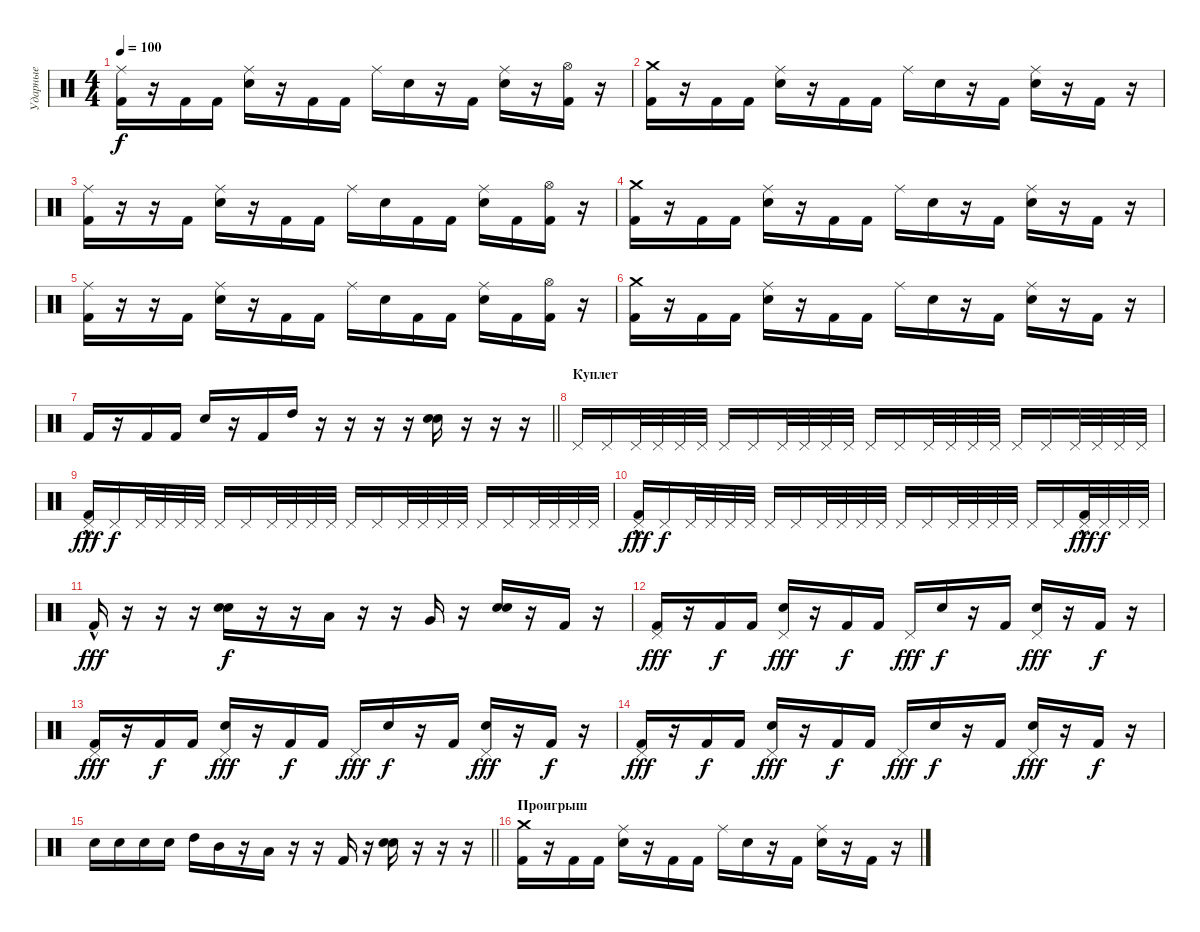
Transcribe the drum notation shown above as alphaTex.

\track ("Ударные" "Ударные") {instrument percussion}
\staff {score}
\articulation defaults
\ts (4 4)
\tempo 100
\clef neutral
\ks c
("Kick (hit) 2" "Ride (middle)").16{dy f} r.16 "Kick (hit) 2".16 "Kick (hit) 2".16 ("Electric Snare (hit)" "Ride (middle)").16 r.16 "Kick (hit) 2".16 "Kick (hit) 2".16 "Ride (middle)".16 "Electric Snare (hit)".16 r.16 "Kick (hit) 2".16 ("Electric Snare (hit)" "Ride (middle)").16 r.16 ("Kick (hit) 2" "Hi-Hat (open)").16 r.16 |
("Kick (hit) 2" "Crash medium (hit)").16 r.16 "Kick (hit) 2".16 "Kick (hit) 2".16 ("Electric Snare (hit)" "Ride (middle)").16 r.16 "Kick (hit) 2".16 "Kick (hit) 2".16 "Ride (middle)".16 "Electric Snare (hit)".16 r.16 "Kick (hit) 2".16 ("Electric Snare (hit)" "Ride (middle)").16 r.16 "Kick (hit) 2".16 r.16 |
("Kick (hit) 2" "Ride (middle)").16 r.16 r.16 "Kick (hit) 2".16 ("Electric Snare (hit)" "Ride (middle)").16 r.16 "Kick (hit) 2".16 "Kick (hit) 2".16 "Ride (middle)".16 "Electric Snare (hit)".16 "Kick (hit) 2".16 "Kick (hit) 2".16 ("Electric Snare (hit)" "Ride (middle)").16 "Kick (hit) 2".16 ("Kick (hit) 2" "Hi-Hat (open)").16 r.16 |
("Kick (hit) 2" "Crash medium (hit)").16 r.16 "Kick (hit) 2".16 "Kick (hit) 2".16 ("Electric Snare (hit)" "Ride (middle)").16 r.16 "Kick (hit) 2".16 "Kick (hit) 2".16 "Ride (middle)".16 "Electric Snare (hit)".16 r.16 "Kick (hit) 2".16 ("Electric Snare (hit)" "Ride (middle)").16 r.16 "Kick (hit) 2".16 r.16 |
("Kick (hit) 2" "Ride (middle)").16 r.16 r.16 "Kick (hit) 2".16 ("Electric Snare (hit)" "Ride (middle)").16 r.16 "Kick (hit) 2".16 "Kick (hit) 2".16 "Ride (middle)".16 "Electric Snare (hit)".16 "Kick (hit) 2".16 "Kick (hit) 2".16 ("Electric Snare (hit)" "Ride (middle)").16 "Kick (hit) 2".16 ("Kick (hit) 2" "Hi-Hat (open)").16 r.16 |
("Kick (hit) 2" "Crash medium (hit)").16 r.16 "Kick (hit) 2".16 "Kick (hit) 2".16 ("Electric Snare (hit)" "Ride (middle)").16 r.16 "Kick (hit) 2".16 "Kick (hit) 2".16 "Ride (middle)".16 "Electric Snare (hit)".16 r.16 "Kick (hit) 2".16 ("Electric Snare (hit)" "Ride (middle)").16 r.16 "Kick (hit) 2".16 r.16 |
\barLineRight lightlight "Kick (hit) 2".16
r.16 "Kick (hit) 2".16 "Kick (hit) 2".16 "Electric Snare (hit)".16 r.16 "Kick (hit) 2".16 "High Tom (hit)".16 r.16 r.16 r.16 r.16 ("Electric Snare (hit)" "Electric Snare (hit)").16 r.16 r.16 r.16 |
\section ("" "Куплет")
"Pedal Hi-Hat (hit)".16 "Pedal Hi-Hat (hit)".16 "Pedal Hi-Hat (hit)".32 "Pedal Hi-Hat (hit)".32 "Pedal Hi-Hat (hit)".32 "Pedal Hi-Hat (hit)".32 "Pedal Hi-Hat (hit)".16 "Pedal Hi-Hat (hit)".16 "Pedal Hi-Hat (hit)".32 "Pedal Hi-Hat (hit)".32 "Pedal Hi-Hat (hit)".32 "Pedal Hi-Hat (hit)".32 "Pedal Hi-Hat (hit)".16 "Pedal Hi-Hat (hit)".16 "Pedal Hi-Hat (hit)".32 "Pedal Hi-Hat (hit)".32 "Pedal Hi-Hat (hit)".32 "Pedal Hi-Hat (hit)".32 "Pedal Hi-Hat (hit)".16 "Pedal Hi-Hat (hit)".16 "Pedal Hi-Hat (hit)".32 "Pedal Hi-Hat (hit)".32 "Pedal Hi-Hat (hit)".32 "Pedal Hi-Hat (hit)".32 |
("Pedal Hi-Hat (hit)" "Kick (hit) 2"{hac}).16{dy fff} "Pedal Hi-Hat (hit)".16{dy f} "Pedal Hi-Hat (hit)".32 "Pedal Hi-Hat (hit)".32 "Pedal Hi-Hat (hit)".32 "Pedal Hi-Hat (hit)".32 "Pedal Hi-Hat (hit)".16 "Pedal Hi-Hat (hit)".16 "Pedal Hi-Hat (hit)".32 "Pedal Hi-Hat (hit)".32 "Pedal Hi-Hat (hit)".32 "Pedal Hi-Hat (hit)".32 "Pedal Hi-Hat (hit)".16 "Pedal Hi-Hat (hit)".16 "Pedal Hi-Hat (hit)".32 "Pedal Hi-Hat (hit)".32 "Pedal Hi-Hat (hit)".32 "Pedal Hi-Hat (hit)".32 "Pedal Hi-Hat (hit)".16 "Pedal Hi-Hat (hit)".16 "Pedal Hi-Hat (hit)".32 "Pedal Hi-Hat (hit)".32 "Pedal Hi-Hat (hit)".32 "Pedal Hi-Hat (hit)".32 |
("Pedal Hi-Hat (hit)" "Kick (hit) 2"{hac}).16{dy fff} "Pedal Hi-Hat (hit)".16{dy f} "Pedal Hi-Hat (hit)".32 "Pedal Hi-Hat (hit)".32 "Pedal Hi-Hat (hit)".32 "Pedal Hi-Hat (hit)".32 "Pedal Hi-Hat (hit)".16 "Pedal Hi-Hat (hit)".16 "Pedal Hi-Hat (hit)".32 "Pedal Hi-Hat (hit)".32 "Pedal Hi-Hat (hit)".32 "Pedal Hi-Hat (hit)".32 "Pedal Hi-Hat (hit)".16 "Pedal Hi-Hat (hit)".16 "Pedal Hi-Hat (hit)".32 "Pedal Hi-Hat (hit)".32 "Pedal Hi-Hat (hit)".32 "Pedal Hi-Hat (hit)".32 "Pedal Hi-Hat (hit)".16 "Pedal Hi-Hat (hit)".16 ("Pedal Hi-Hat (hit)" "Kick (hit) 2"{hac}).32{dy fff} "Pedal Hi-Hat (hit)".32{dy f} "Pedal Hi-Hat (hit)".32 "Pedal Hi-Hat (hit)".32 |
"Kick (hit) 2"{hac}.16{dy fff} r.16 r.16 r.16 ("Electric Snare (hit)" "Electric Snare (hit)").16{bu 120 dy f} r.16 r.16 "Low Tom (hit)".16 r.16 r.16 "Very Low Tom (hit)".16 r.16 ("Electric Snare (hit)" "Electric Snare (hit)").16{bu 120} r.16 "Kick (hit) 2".16 r.16 |
("Kick (hit) 2" "Pedal Hi-Hat (hit)").16{dy fff} r.16 "Kick (hit) 2".16{dy f} "Kick (hit) 2".16 ("Electric Snare (hit)" "Pedal Hi-Hat (hit)").16{dy fff} r.16 "Kick (hit) 2".16{dy f} "Kick (hit) 2".16 "Pedal Hi-Hat (hit)".16{dy fff} "Electric Snare (hit)".16{dy f} r.16 "Kick (hit) 2".16 ("Electric Snare (hit)" "Pedal Hi-Hat (hit)").16{dy fff} r.16 "Kick (hit) 2".16{dy f} r.16 |
("Kick (hit) 2" "Pedal Hi-Hat (hit)").16{dy fff} r.16 "Kick (hit) 2".16{dy f} "Kick (hit) 2".16 ("Electric Snare (hit)" "Pedal Hi-Hat (hit)").16{dy fff} r.16 "Kick (hit) 2".16{dy f} "Kick (hit) 2".16 "Pedal Hi-Hat (hit)".16{dy fff} "Electric Snare (hit)".16{dy f} r.16 "Kick (hit) 2".16 ("Electric Snare (hit)" "Pedal Hi-Hat (hit)").16{dy fff} r.16 "Kick (hit) 2".16{dy f} r.16 |
("Kick (hit) 2" "Pedal Hi-Hat (hit)").16{dy fff} r.16 "Kick (hit) 2".16{dy f} "Kick (hit) 2".16 ("Electric Snare (hit)" "Pedal Hi-Hat (hit)").16{dy fff} r.16 "Kick (hit) 2".16{dy f} "Kick (hit) 2".16 "Pedal Hi-Hat (hit)".16{dy fff} "Electric Snare (hit)".16{dy f} r.16 "Kick (hit) 2".16 ("Electric Snare (hit)" "Pedal Hi-Hat (hit)").16{dy fff} r.16 "Kick (hit) 2".16{dy f} r.16 |
\barLineRight lightlight "Electric Snare (hit)".16 "Electric Snare (hit)".16 "Electric Snare (hit)".16 "Electric Snare (hit)".16 "High Tom (hit)".16 "Mid Tom (hit)".16
r.16 "Low Tom (hit)".16 r.16 r.16 "Kick (hit) 2".16 r.16 ("Electric Snare (hit)" "Electric Snare (hit)").16{bd 120} r.16 r.16 r.16 |
\section ("" "Проигрыш")
("Kick (hit) 2" "Crash medium (hit)").16 r.16 "Kick (hit) 2".16 "Kick (hit) 2".16 ("Electric Snare (hit)" "Ride (middle)").16 r.16 "Kick (hit) 2".16 "Kick (hit) 2".16 "Ride (middle)".16 "Electric Snare (hit)".16 r.16 "Kick (hit) 2".16 ("Electric Snare (hit)" "Ride (middle)").16 r.16 "Kick (hit) 2".16 r.16
